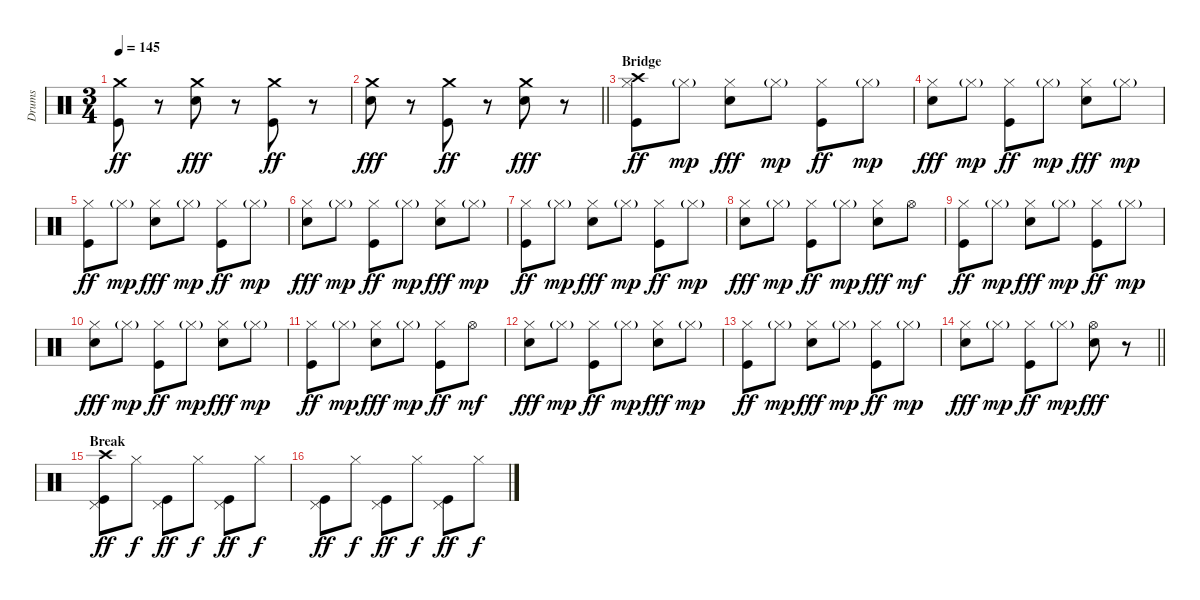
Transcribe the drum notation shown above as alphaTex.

\track ("Drums" "Drums") {instrument percussion}
\staff {score}
\articulation defaults
\ts (3 4)
\tempo 145
\clef neutral
\ks c
("Crash medium (hit)" "Kick (hit)").8{dy ff} r.8 ("Crash medium (hit)" "Electric Snare (hit)").8{dy fff} r.8 ("Crash medium (hit)" "Kick (hit)").8{dy ff} r.8 |
\barLineRight lightlight
("Crash medium (hit)" "Electric Snare (hit)").8{dy fff} r.8 ("Crash medium (hit)" "Kick (hit)").8{dy ff} r.8 ("Crash medium (hit)" "Electric Snare (hit)").8{dy fff} r.8 |
\section ("" "Bridge")
("Crash high (hit)" "Hi-Hat (closed)" "Kick (hit)").8{dy ff} "Hi-Hat (closed)"{g}.8{dy mp} ("Hi-Hat (closed)" "Electric Snare (hit)").8{dy fff} "Hi-Hat (closed)"{g}.8{dy mp} ("Hi-Hat (closed)" "Kick (hit)").8{dy ff} "Hi-Hat (closed)"{g}.8{dy mp} |
("Hi-Hat (closed)" "Electric Snare (hit)").8{dy fff} "Hi-Hat (closed)"{g}.8{dy mp} ("Hi-Hat (closed)" "Kick (hit)").8{dy ff} "Hi-Hat (closed)"{g}.8{dy mp} ("Hi-Hat (closed)" "Electric Snare (hit)").8{dy fff} "Hi-Hat (closed)"{g}.8{dy mp} |
("Hi-Hat (closed)" "Kick (hit)").8{dy ff} "Hi-Hat (closed)"{g}.8{dy mp} ("Hi-Hat (closed)" "Electric Snare (hit)").8{dy fff} "Hi-Hat (closed)"{g}.8{dy mp} ("Hi-Hat (closed)" "Kick (hit)").8{dy ff} "Hi-Hat (closed)"{g}.8{dy mp} |
("Hi-Hat (closed)" "Electric Snare (hit)").8{dy fff} "Hi-Hat (closed)"{g}.8{dy mp} ("Hi-Hat (closed)" "Kick (hit)").8{dy ff} "Hi-Hat (closed)"{g}.8{dy mp} ("Hi-Hat (closed)" "Electric Snare (hit)").8{dy fff} "Hi-Hat (closed)"{g}.8{dy mp} |
("Hi-Hat (closed)" "Kick (hit)").8{dy ff} "Hi-Hat (closed)"{g}.8{dy mp} ("Hi-Hat (closed)" "Electric Snare (hit)").8{dy fff} "Hi-Hat (closed)"{g}.8{dy mp} ("Hi-Hat (closed)" "Kick (hit)").8{dy ff} "Hi-Hat (closed)"{g}.8{dy mp} |
("Hi-Hat (closed)" "Electric Snare (hit)").8{dy fff} "Hi-Hat (closed)"{g}.8{dy mp} ("Hi-Hat (closed)" "Kick (hit)").8{dy ff} "Hi-Hat (closed)"{g}.8{dy mp} ("Hi-Hat (closed)" "Electric Snare (hit)").8{dy fff} "Hi-Hat (open)".8{dy mf} |
("Hi-Hat (closed)" "Kick (hit)").8{dy ff} "Hi-Hat (closed)"{g}.8{dy mp} ("Hi-Hat (closed)" "Electric Snare (hit)").8{dy fff} "Hi-Hat (closed)"{g}.8{dy mp} ("Hi-Hat (closed)" "Kick (hit)").8{dy ff} "Hi-Hat (closed)"{g}.8{dy mp} |
("Hi-Hat (closed)" "Electric Snare (hit)").8{dy fff} "Hi-Hat (closed)"{g}.8{dy mp} ("Hi-Hat (closed)" "Kick (hit)").8{dy ff} "Hi-Hat (closed)"{g}.8{dy mp} ("Hi-Hat (closed)" "Electric Snare (hit)").8{dy fff} "Hi-Hat (closed)"{g}.8{dy mp} |
("Hi-Hat (closed)" "Kick (hit)").8{dy ff} "Hi-Hat (closed)"{g}.8{dy mp} ("Hi-Hat (closed)" "Electric Snare (hit)").8{dy fff} "Hi-Hat (closed)"{g}.8{dy mp} ("Hi-Hat (closed)" "Kick (hit)").8{dy ff} "Hi-Hat (open)".8{dy mf} |
("Hi-Hat (closed)" "Electric Snare (hit)").8{dy fff} "Hi-Hat (closed)"{g}.8{dy mp} ("Hi-Hat (closed)" "Kick (hit)").8{dy ff} "Hi-Hat (closed)"{g}.8{dy mp} ("Hi-Hat (closed)" "Electric Snare (hit)").8{dy fff} "Hi-Hat (closed)"{g}.8{dy mp} |
("Hi-Hat (closed)" "Kick (hit)").8{dy ff} "Hi-Hat (closed)"{g}.8{dy mp} ("Hi-Hat (closed)" "Electric Snare (hit)").8{dy fff} "Hi-Hat (closed)"{g}.8{dy mp} ("Hi-Hat (closed)" "Kick (hit)").8{dy ff} "Hi-Hat (closed)"{g}.8{dy mp} |
\barLineRight lightlight
("Hi-Hat (closed)" "Electric Snare (hit)").8{dy fff} "Hi-Hat (closed)"{g}.8{dy mp} ("Hi-Hat (closed)" "Kick (hit)").8{dy ff} "Hi-Hat (closed)"{g}.8{dy mp} ("Hi-Hat (open)" "Electric Snare (hit)").8{dy fff} r.8 |
\section ("" "Break")
("Crash high (hit)" "Pedal Hi-Hat (hit)" "Kick (hit)").8{dy ff} "Hi-Hat (closed)".8{dy f} ("Pedal Hi-Hat (hit)" "Kick (hit)").8{dy ff} "Hi-Hat (closed)".8{dy f} ("Pedal Hi-Hat (hit)" "Kick (hit)").8{dy ff} "Hi-Hat (closed)".8{dy f} |
("Pedal Hi-Hat (hit)" "Kick (hit)").8{dy ff} "Hi-Hat (closed)".8{dy f} ("Pedal Hi-Hat (hit)" "Kick (hit)").8{dy ff} "Hi-Hat (closed)".8{dy f} ("Pedal Hi-Hat (hit)" "Kick (hit)").8{dy ff} "Hi-Hat (closed)".8{dy f}
